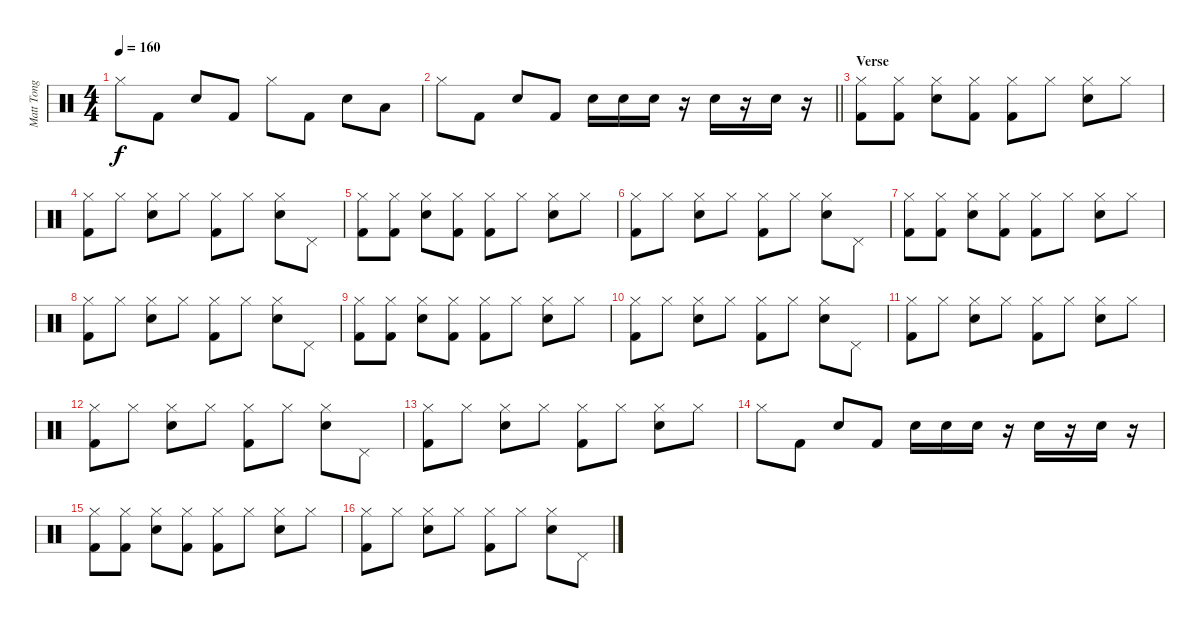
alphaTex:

\track ("Matt Tong" "Matt Tong") {instrument percussion}
\staff {score}
\articulation defaults
\ts (4 4)
\tempo 160
\clef neutral
\ks c "Hi-Hat (closed)".8{dy f} "Kick (hit) 2".8 "Snare (hit) 2".8 "Kick (hit) 2".8 "Hi-Hat (closed)".8 "Kick (hit) 2".8 "Snare (hit) 2".8 "Low Tom (hit)".8
|
\barLineRight lightlight "Hi-Hat (closed)".8 "Kick (hit) 2".8 "Snare (hit) 2".8 "Kick (hit) 2".8 "Snare (hit) 2".16 "Snare (hit) 2".16 "Snare (hit) 2".16
r.16 "Snare (hit) 2".16 r.16 "Snare (hit) 2".16 r.16 |
\section ("" "Verse")
("Hi-Hat (closed)" "Kick (hit) 2").8 ("Hi-Hat (closed)" "Kick (hit) 2").8 ("Hi-Hat (closed)" "Snare (hit) 2").8 ("Hi-Hat (closed)" "Kick (hit) 2").8 ("Hi-Hat (closed)" "Kick (hit) 2").8 "Hi-Hat (closed)".8 ("Hi-Hat (closed)" "Snare (hit) 2").8 "Hi-Hat (closed)".8 |
("Hi-Hat (closed)" "Kick (hit) 2").8 "Hi-Hat (closed)".8 ("Hi-Hat (closed)" "Snare (hit) 2").8 "Hi-Hat (closed)".8 ("Hi-Hat (closed)" "Kick (hit) 2").8 "Hi-Hat (closed)".8 ("Hi-Hat (closed)" "Snare (hit) 2").8 "Pedal Hi-Hat (hit)".8 |
("Hi-Hat (closed)" "Kick (hit) 2").8 ("Hi-Hat (closed)" "Kick (hit) 2").8 ("Hi-Hat (closed)" "Snare (hit) 2").8 ("Hi-Hat (closed)" "Kick (hit) 2").8 ("Hi-Hat (closed)" "Kick (hit) 2").8 "Hi-Hat (closed)".8 ("Hi-Hat (closed)" "Snare (hit) 2").8 "Hi-Hat (closed)".8 |
("Hi-Hat (closed)" "Kick (hit) 2").8 "Hi-Hat (closed)".8 ("Hi-Hat (closed)" "Snare (hit) 2").8 "Hi-Hat (closed)".8 ("Hi-Hat (closed)" "Kick (hit) 2").8 "Hi-Hat (closed)".8 ("Hi-Hat (closed)" "Snare (hit) 2").8 "Pedal Hi-Hat (hit)".8 |
("Hi-Hat (closed)" "Kick (hit) 2").8 ("Hi-Hat (closed)" "Kick (hit) 2").8 ("Hi-Hat (closed)" "Snare (hit) 2").8 ("Hi-Hat (closed)" "Kick (hit) 2").8 ("Hi-Hat (closed)" "Kick (hit) 2").8 "Hi-Hat (closed)".8 ("Hi-Hat (closed)" "Snare (hit) 2").8 "Hi-Hat (closed)".8 |
("Hi-Hat (closed)" "Kick (hit) 2").8 "Hi-Hat (closed)".8 ("Hi-Hat (closed)" "Snare (hit) 2").8 "Hi-Hat (closed)".8 ("Hi-Hat (closed)" "Kick (hit) 2").8 "Hi-Hat (closed)".8 ("Hi-Hat (closed)" "Snare (hit) 2").8 "Pedal Hi-Hat (hit)".8 |
("Hi-Hat (closed)" "Kick (hit) 2").8 ("Hi-Hat (closed)" "Kick (hit) 2").8 ("Hi-Hat (closed)" "Snare (hit) 2").8 ("Hi-Hat (closed)" "Kick (hit) 2").8 ("Hi-Hat (closed)" "Kick (hit) 2").8 "Hi-Hat (closed)".8 ("Hi-Hat (closed)" "Snare (hit) 2").8 "Hi-Hat (closed)".8 |
("Hi-Hat (closed)" "Kick (hit) 2").8 "Hi-Hat (closed)".8 ("Hi-Hat (closed)" "Snare (hit) 2").8 "Hi-Hat (closed)".8 ("Hi-Hat (closed)" "Kick (hit) 2").8 "Hi-Hat (closed)".8 ("Hi-Hat (closed)" "Snare (hit) 2").8 "Pedal Hi-Hat (hit)".8 |
("Hi-Hat (closed)" "Kick (hit) 2").8 "Hi-Hat (closed)".8 ("Hi-Hat (closed)" "Snare (hit) 2").8 "Hi-Hat (closed)".8 ("Hi-Hat (closed)" "Kick (hit) 2").8 "Hi-Hat (closed)".8 ("Hi-Hat (closed)" "Snare (hit) 2").8 "Hi-Hat (closed)".8 |
("Hi-Hat (closed)" "Kick (hit) 2").8 "Hi-Hat (closed)".8 ("Hi-Hat (closed)" "Snare (hit) 2").8 "Hi-Hat (closed)".8 ("Hi-Hat (closed)" "Kick (hit) 2").8 "Hi-Hat (closed)".8 ("Hi-Hat (closed)" "Snare (hit) 2").8 "Pedal Hi-Hat (hit)".8 |
("Hi-Hat (closed)" "Kick (hit) 2").8 "Hi-Hat (closed)".8 ("Hi-Hat (closed)" "Snare (hit) 2").8 "Hi-Hat (closed)".8 ("Hi-Hat (closed)" "Kick (hit) 2").8 "Hi-Hat (closed)".8 ("Hi-Hat (closed)" "Snare (hit) 2").8 "Hi-Hat (closed)".8 |
"Hi-Hat (closed)".8 "Kick (hit) 2".8 "Snare (hit) 2".8 "Kick (hit) 2".8 "Snare (hit) 2".16 "Snare (hit) 2".16 "Snare (hit) 2".16 r.16 "Snare (hit) 2".16 r.16 "Snare (hit) 2".16 r.16 |
("Hi-Hat (closed)" "Kick (hit) 2").8 ("Hi-Hat (closed)" "Kick (hit) 2").8 ("Hi-Hat (closed)" "Snare (hit) 2").8 ("Hi-Hat (closed)" "Kick (hit) 2").8 ("Hi-Hat (closed)" "Kick (hit) 2").8 "Hi-Hat (closed)".8 ("Hi-Hat (closed)" "Snare (hit) 2").8 "Hi-Hat (closed)".8 |
("Hi-Hat (closed)" "Kick (hit) 2").8 "Hi-Hat (closed)".8 ("Hi-Hat (closed)" "Snare (hit) 2").8 "Hi-Hat (closed)".8 ("Hi-Hat (closed)" "Kick (hit) 2").8 "Hi-Hat (closed)".8 ("Hi-Hat (closed)" "Snare (hit) 2").8 "Pedal Hi-Hat (hit)".8
